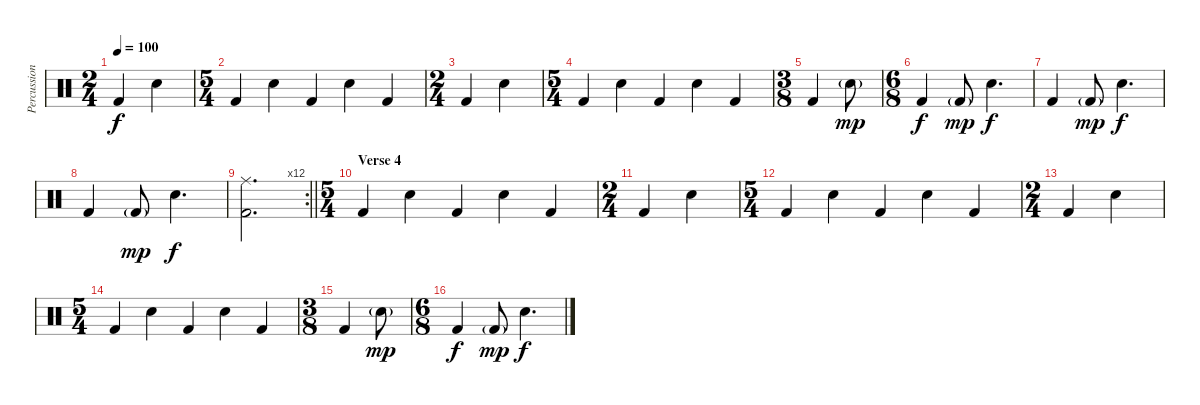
\track ("Percussion" "Percussion") {instrument percussion}
\staff {score}
\articulation defaults
\ts (2 4)
\tempo 100
\clef neutral
\ks c "Kick (hit) 2".4{dy f} "Snare (hit) 2".4
|
\ts (5 4)
"Kick (hit) 2".4 "Snare (hit) 2".4 "Kick (hit) 2".4 "Snare (hit) 2".4 "Kick (hit) 2".4 |
\ts (2 4)
"Kick (hit) 2".4 "Snare (hit) 2".4 |
\ts (5 4)
"Kick (hit) 2".4 "Snare (hit) 2".4 "Kick (hit) 2".4 "Snare (hit) 2".4 "Kick (hit) 2".4 |
\ts (3 8)
"Kick (hit) 2".4 "Snare (hit) 2"{g}.8{dy mp} |
\ts (6 8)
"Kick (hit) 2".4{dy f} "Kick (hit) 2"{g}.8{dy mp} "Snare (hit) 2".4{d dy f} |
"Kick (hit) 2".4 "Kick (hit) 2"{g}.8{dy mp} "Snare (hit) 2".4{d dy f} |
"Kick (hit) 2".4 "Kick (hit) 2"{g}.8{dy mp} "Snare (hit) 2".4{d dy f} |
\rc 12
\barLineRight lightlight
("Ride (middle)" "Kick (hit) 2").2{d} |
\ts (5 4)
\section ("" "Verse 4")
"Kick (hit) 2".4 "Snare (hit) 2".4 "Kick (hit) 2".4 "Snare (hit) 2".4 "Kick (hit) 2".4 |
\ts (2 4)
"Kick (hit) 2".4 "Snare (hit) 2".4 |
\ts (5 4)
"Kick (hit) 2".4 "Snare (hit) 2".4 "Kick (hit) 2".4 "Snare (hit) 2".4 "Kick (hit) 2".4 |
\ts (2 4)
"Kick (hit) 2".4 "Snare (hit) 2".4 |
\ts (5 4)
"Kick (hit) 2".4 "Snare (hit) 2".4 "Kick (hit) 2".4 "Snare (hit) 2".4 "Kick (hit) 2".4 |
\ts (3 8)
"Kick (hit) 2".4 "Snare (hit) 2"{g}.8{dy mp} |
\ts (6 8)
"Kick (hit) 2".4{dy f} "Kick (hit) 2"{g}.8{dy mp} "Snare (hit) 2".4{d dy f}
